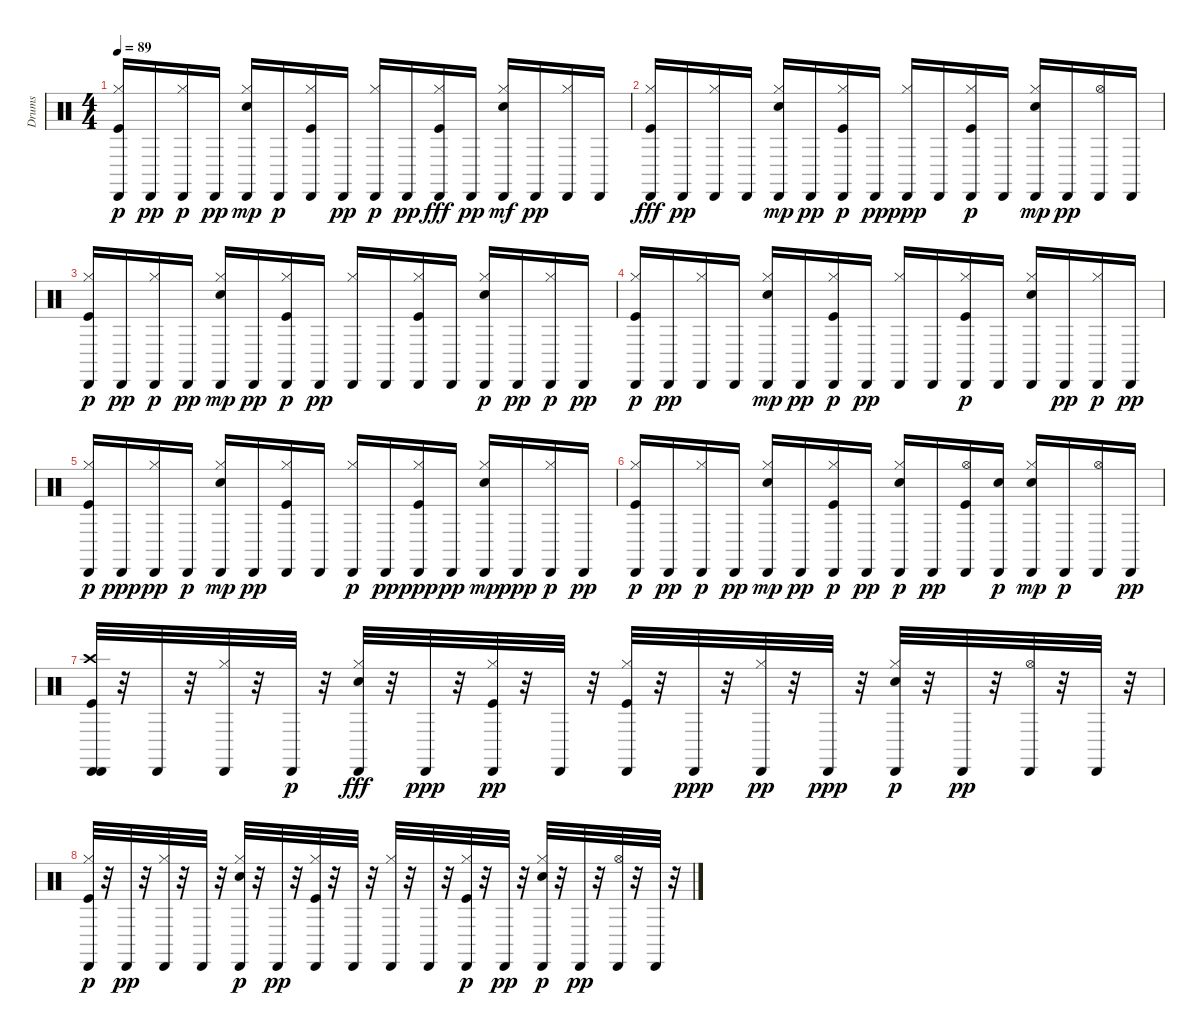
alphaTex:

\track ("Drums" "Drums") {instrument percussion}
\staff {score}
\articulation defaults
\ts (4 4)
\tempo 89
\clef neutral
\ks c
("Hi-Hat (closed)" "Kick (hit)" "Cabasa (hit)").16{dy p} "Cabasa (hit)".16{dy pp} ("Hi-Hat (closed)" "Cabasa (hit)").16{dy p} "Cabasa (hit)".16{dy pp} ("Electric Snare (hit)" "Hi-Hat (closed)" "Cabasa (hit)").16{dy mp} "Cabasa (hit)".16{dy p} ("Hi-Hat (closed)" "Kick (hit)" "Cabasa (hit)").16 "Cabasa (hit)".16{dy pp} ("Cabasa (hit)" "Hi-Hat (closed)").16{dy p} "Cabasa (hit)".16{dy pp} ("Cabasa (hit)" "Hi-Hat (closed)" "Kick (hit)").16{dy fff} "Cabasa (hit)".16{dy pp} ("Cabasa (hit)" "Electric Snare (hit)" "Hi-Hat (closed)").16{dy mf} "Cabasa (hit)".16{dy pp} ("Hi-Hat (closed)" "Cabasa (hit)").16 "Cabasa (hit)".16 |
("Hi-Hat (closed)" "Cabasa (hit)" "Kick (hit)").16{dy fff} "Cabasa (hit)".16{dy pp} ("Hi-Hat (closed)" "Cabasa (hit)").16 "Cabasa (hit)".16 ("Hi-Hat (closed)" "Electric Snare (hit)" "Cabasa (hit)").16{dy mp} "Cabasa (hit)".16{dy pp} ("Kick (hit)" "Hi-Hat (closed)" "Cabasa (hit)").16{dy p} "Cabasa (hit)".16{dy pp} ("Hi-Hat (closed)" "Cabasa (hit)").16{dy ppp} "Cabasa (hit)".16 ("Hi-Hat (closed)" "Kick (hit)" "Cabasa (hit)").16{dy p} "Cabasa (hit)".16 ("Electric Snare (hit)" "Hi-Hat (closed)" "Cabasa (hit)").16{dy mp} "Cabasa (hit)".16{dy pp} ("Hi-Hat (open)" "Cabasa (hit)").16 "Cabasa (hit)".16 |
("Kick (hit)" "Cabasa (hit)" "Hi-Hat (closed)").16{dy p} "Cabasa (hit)".16{dy pp} ("Hi-Hat (closed)" "Cabasa (hit)").16{dy p} "Cabasa (hit)".16{dy pp} ("Electric Snare (hit)" "Hi-Hat (closed)" "Cabasa (hit)").16{dy mp} "Cabasa (hit)".16{dy pp} ("Hi-Hat (closed)" "Kick (hit)" "Cabasa (hit)").16{dy p} "Cabasa (hit)".16{dy pp} ("Hi-Hat (closed)" "Cabasa (hit)").16 "Cabasa (hit)".16 ("Kick (hit)" "Hi-Hat (closed)" "Cabasa (hit)").16 "Cabasa (hit)".16 ("Hi-Hat (closed)" "Electric Snare (hit)" "Cabasa (hit)").16{dy p} "Cabasa (hit)".16{dy pp} ("Hi-Hat (closed)" "Cabasa (hit)").16{dy p} "Cabasa (hit)".16{dy pp} |
("Kick (hit)" "Hi-Hat (closed)" "Cabasa (hit)").16{dy p} "Cabasa (hit)".16{dy pp} ("Hi-Hat (closed)" "Cabasa (hit)").16 "Cabasa (hit)".16 ("Electric Snare (hit)" "Hi-Hat (closed)" "Cabasa (hit)").16{dy mp} "Cabasa (hit)".16{dy pp} ("Kick (hit)" "Hi-Hat (closed)" "Cabasa (hit)").16{dy p} "Cabasa (hit)".16{dy pp} ("Hi-Hat (closed)" "Cabasa (hit)").16 "Cabasa (hit)".16 ("Kick (hit)" "Hi-Hat (closed)" "Cabasa (hit)").16{dy p} "Cabasa (hit)".16 ("Electric Snare (hit)" "Hi-Hat (closed)" "Cabasa (hit)").16 "Cabasa (hit)".16{dy pp} ("Hi-Hat (closed)" "Cabasa (hit)").16{dy p} "Cabasa (hit)".16{dy pp} |
("Hi-Hat (closed)" "Kick (hit)" "Cabasa (hit)").16{dy p} "Cabasa (hit)".16{dy ppp} ("Hi-Hat (closed)" "Cabasa (hit)").16{dy pp} "Cabasa (hit)".16{dy p} ("Hi-Hat (closed)" "Electric Snare (hit)" "Cabasa (hit)").16{dy mp} "Cabasa (hit)".16{dy pp} ("Hi-Hat (closed)" "Kick (hit)" "Cabasa (hit)").16 "Cabasa (hit)".16 ("Hi-Hat (closed)" "Cabasa (hit)").16{dy p} "Cabasa (hit)".16{dy pp} ("Kick (hit)" "Hi-Hat (closed)" "Cabasa (hit)").16{dy ppp} "Cabasa (hit)".16{dy pp} ("Electric Snare (hit)" "Hi-Hat (closed)" "Cabasa (hit)").16{dy mp} "Cabasa (hit)".16{dy ppp} ("Hi-Hat (closed)" "Cabasa (hit)").16{dy p} "Cabasa (hit)".16{dy pp} |
("Kick (hit)" "Hi-Hat (closed)" "Cabasa (hit)").16{dy p} "Cabasa (hit)".16{dy pp} ("Hi-Hat (closed)" "Cabasa (hit)").16{dy p} "Cabasa (hit)".16{dy pp} ("Electric Snare (hit)" "Hi-Hat (closed)" "Cabasa (hit)").16{dy mp} "Cabasa (hit)".16{dy pp} ("Hi-Hat (closed)" "Kick (hit)" "Cabasa (hit)").16{dy p} "Cabasa (hit)".16{dy pp} ("Electric Snare (hit)" "Hi-Hat (closed)" "Cabasa (hit)").16{dy p} "Cabasa (hit)".16{dy pp} ("Kick (hit)" "Hi-Hat (open)" "Cabasa (hit)").16 ("Electric Snare (hit)" "Cabasa (hit)").16{dy p} ("Hi-Hat (closed)" "Electric Snare (hit)" "Cabasa (hit)").16{dy mp} "Cabasa (hit)".16{dy p} ("Hi-Hat (open)" "Cabasa (hit)").16 "Cabasa (hit)".16{dy pp} |
("Crash high (hit)" "Kick (hit)" "Cabasa (hit)" "Cabasa (hit)").32 r.32 "Cabasa (hit)".32 r.32 ("Hi-Hat (closed)" "Cabasa (hit)").32 r.32 "Cabasa (hit)".32{dy p} r.32 ("Hi-Hat (closed)" "Cabasa (hit)" "Electric Snare (hit)").32{dy fff} r.32 "Cabasa (hit)".32{dy ppp} r.32 ("Hi-Hat (closed)" "Kick (hit)" "Cabasa (hit)").32{dy pp} r.32 "Cabasa (hit)".32 r.32 ("Kick (hit)" "Hi-Hat (closed)" "Cabasa (hit)").32 r.32 "Cabasa (hit)".32{dy ppp} r.32 ("Hi-Hat (closed)" "Cabasa (hit)").32{dy pp} r.32 "Cabasa (hit)".32{dy ppp} r.32 ("Hi-Hat (closed)" "Electric Snare (hit)" "Cabasa (hit)").32{dy p} r.32 "Cabasa (hit)".32{dy pp} r.32 ("Hi-Hat (open)" "Cabasa (hit)").32 r.32 "Cabasa (hit)".32 r.32 |
("Kick (hit)" "Hi-Hat (closed)" "Cabasa (hit)").32{dy p} r.32 "Cabasa (hit)".32{dy pp} r.32 ("Hi-Hat (closed)" "Cabasa (hit)").32 r.32 "Cabasa (hit)".32 r.32 ("Hi-Hat (closed)" "Electric Snare (hit)" "Cabasa (hit)").32{dy p} r.32 "Cabasa (hit)".32{dy pp} r.32 ("Kick (hit)" "Hi-Hat (closed)" "Cabasa (hit)").32 r.32 "Cabasa (hit)".32 r.32 ("Hi-Hat (closed)" "Cabasa (hit)").32 r.32 "Cabasa (hit)".32 r.32 ("Hi-Hat (closed)" "Kick (hit)" "Cabasa (hit)").32{dy p} r.32 "Cabasa (hit)".32{dy pp} r.32 ("Hi-Hat (closed)" "Electric Snare (hit)" "Cabasa (hit)").32{dy p} r.32 "Cabasa (hit)".32{dy pp} r.32 ("Hi-Hat (open)" "Cabasa (hit)").32 r.32 "Cabasa (hit)".32 r.32
